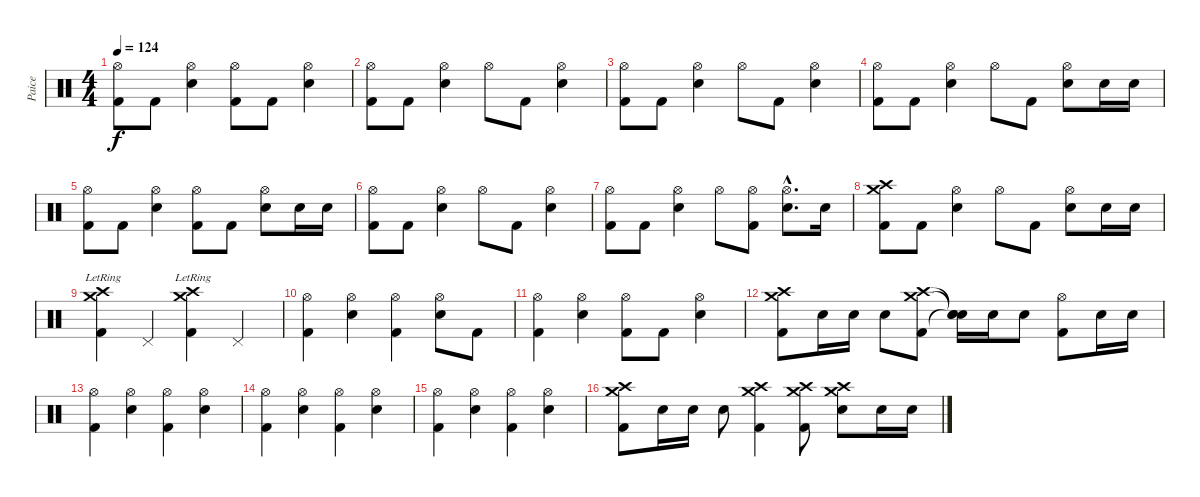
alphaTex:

\track ("Paice" "Paice") {instrument percussion}
\staff {score}
\articulation defaults
\ts (4 4)
\tempo 124
\clef neutral
\ks c
("Hi-Hat (open)" "Kick (hit) 2").8{dy f} "Kick (hit) 2".8 ("Hi-Hat (open)" "Electric Snare (hit)").4 ("Hi-Hat (open)" "Kick (hit) 2").8 "Kick (hit) 2".8 ("Hi-Hat (open)" "Electric Snare (hit)").4 |
("Hi-Hat (open)" "Kick (hit) 2").8 "Kick (hit) 2".8 ("Hi-Hat (open)" "Electric Snare (hit)").4 "Hi-Hat (open)".8 "Kick (hit) 2".8 ("Hi-Hat (open)" "Electric Snare (hit)").4 |
("Hi-Hat (open)" "Kick (hit) 2").8 "Kick (hit) 2".8 ("Hi-Hat (open)" "Electric Snare (hit)").4 "Hi-Hat (open)".8 "Kick (hit) 2".8 ("Hi-Hat (open)" "Electric Snare (hit)").4 |
("Hi-Hat (open)" "Kick (hit) 2").8 "Kick (hit) 2".8 ("Hi-Hat (open)" "Electric Snare (hit)").4 "Hi-Hat (open)".8 "Kick (hit) 2".8 ("Hi-Hat (open)" "Electric Snare (hit)").8 "Electric Snare (hit)".16 "Electric Snare (hit)".16 |
("Hi-Hat (open)" "Kick (hit) 2").8 "Kick (hit) 2".8 ("Hi-Hat (open)" "Electric Snare (hit)").4 ("Hi-Hat (open)" "Kick (hit) 2").8 "Kick (hit) 2".8 ("Hi-Hat (open)" "Electric Snare (hit)").8 "Electric Snare (hit)".16 "Electric Snare (hit)".16 |
("Hi-Hat (open)" "Kick (hit) 2").8 "Kick (hit) 2".8 ("Hi-Hat (open)" "Electric Snare (hit)").4 "Hi-Hat (open)".8 "Kick (hit) 2".8 ("Hi-Hat (open)" "Electric Snare (hit)").4 |
("Hi-Hat (open)" "Kick (hit) 2").8 "Kick (hit) 2".8 ("Hi-Hat (open)" "Electric Snare (hit)").4 "Hi-Hat (open)".8 ("Hi-Hat (open)" "Kick (hit) 2").8 ("Hi-Hat (open)"{hac} "Electric Snare (hit)"{hac}).8{d} "Electric Snare (hit)".16 |
("Crash high (hit)" "Crash medium (hit)" "Kick (hit) 2").8 "Kick (hit) 2".8 ("Hi-Hat (open)" "Electric Snare (hit)").4 "Hi-Hat (open)".8 "Kick (hit) 2".8 ("Hi-Hat (open)" "Electric Snare (hit)").8 "Electric Snare (hit)".16 "Electric Snare (hit)".16 |
("Crash high (hit)"{lr} "Crash medium (hit)"{lr} "Kick (hit) 2").4 "Pedal Hi-Hat (hit)".4 ("Crash high (hit)"{lr} "Crash medium (hit)"{lr} "Kick (hit) 2").4 "Pedal Hi-Hat (hit)".4 |
("Hi-Hat (open)" "Kick (hit) 2").4 ("Hi-Hat (open)" "Electric Snare (hit)").4 ("Hi-Hat (open)" "Kick (hit) 2").4 ("Hi-Hat (open)" "Electric Snare (hit)").8 "Kick (hit) 2".8 |
("Hi-Hat (open)" "Kick (hit) 2").4 ("Hi-Hat (open)" "Electric Snare (hit)").4 ("Hi-Hat (open)" "Kick (hit) 2").8 "Kick (hit) 2".8 ("Hi-Hat (open)" "Electric Snare (hit)").4 |
("Crash high (hit)" "Crash medium (hit)" "Kick (hit) 2").8 "Electric Snare (hit)".16 "Electric Snare (hit)".16 "Electric Snare (hit)".8 ("Crash high (hit)" "Crash medium (hit)" "Kick (hit) 2").8 ("Snare (hit)"{t} "Snare (hit)"{t} "Snare (hit)"{t}).16 "Electric Snare (hit)".16 "Electric Snare (hit)".8 ("Hi-Hat (open)" "Kick (hit) 2").8 "Electric Snare (hit)".16 "Electric Snare (hit)".16 |
("Hi-Hat (open)" "Kick (hit) 2").4 ("Hi-Hat (open)" "Electric Snare (hit)").4 ("Hi-Hat (open)" "Kick (hit) 2").4 ("Hi-Hat (open)" "Electric Snare (hit)").4 |
("Hi-Hat (open)" "Kick (hit) 2").4 ("Hi-Hat (open)" "Electric Snare (hit)").4 ("Hi-Hat (open)" "Kick (hit) 2").4 ("Hi-Hat (open)" "Electric Snare (hit)").4 |
("Hi-Hat (open)" "Kick (hit) 2").4 ("Hi-Hat (open)" "Electric Snare (hit)").4 ("Hi-Hat (open)" "Kick (hit) 2").4 ("Hi-Hat (open)" "Electric Snare (hit)").4 |
("Crash high (hit)" "Crash medium (hit)" "Kick (hit) 2").8 "Electric Snare (hit)".16 "Electric Snare (hit)".16 "Electric Snare (hit)".8 ("Crash high (hit)" "Crash medium (hit)" "Kick (hit) 2").4 ("Crash high (hit)" "Crash medium (hit)" "Kick (hit) 2").8 ("Crash high (hit)" "Crash medium (hit)" "Electric Snare (hit)").8 "Electric Snare (hit)".16 "Electric Snare (hit)".16
